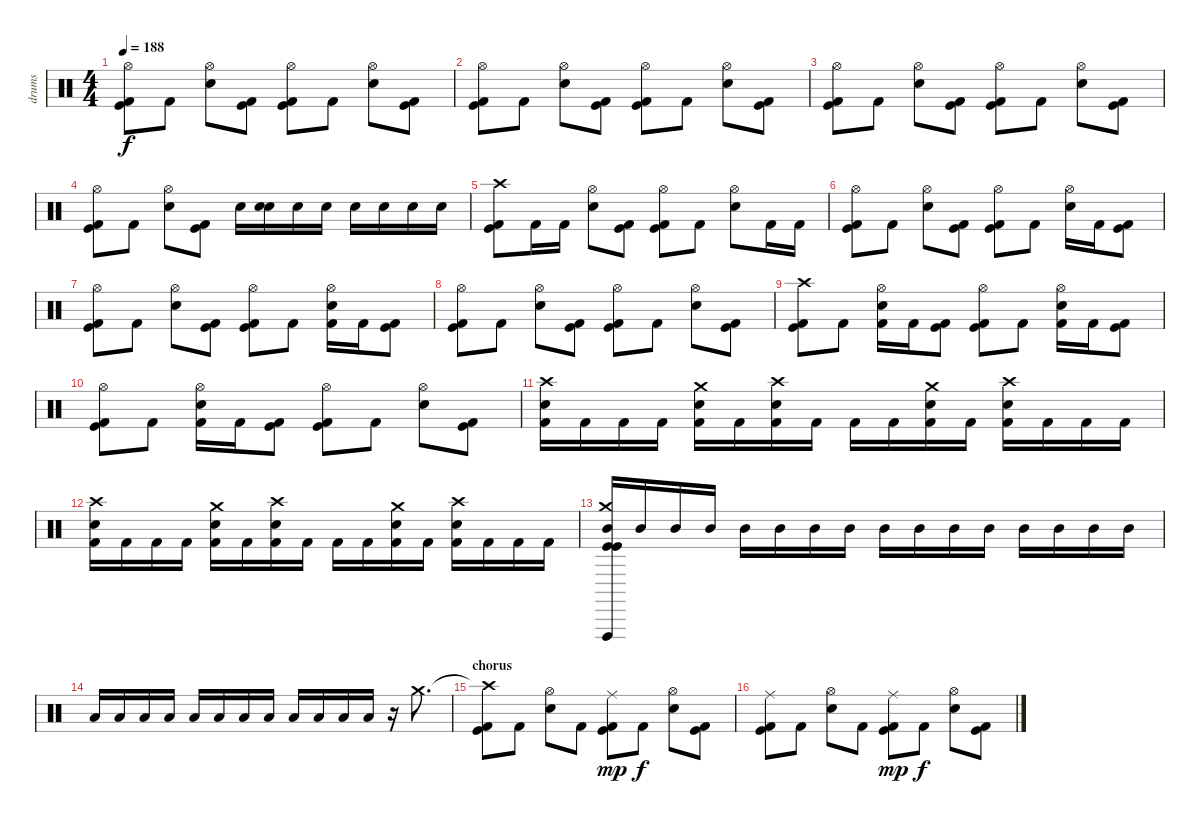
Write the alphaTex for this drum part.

\track ("drums" "drums") {instrument percussion}
\staff {score}
\articulation defaults
\ts (4 4)
\tempo 188
\clef neutral
\ks c
("Hi-Hat (open)" "Kick (hit)" "Kick (hit) 2").8{dy f} "Kick (hit) 2".8 ("Hi-Hat (open)" "Snare (hit) 2").8 ("Kick (hit)" "Kick (hit) 2").8 ("Hi-Hat (open)" "Kick (hit)" "Kick (hit) 2").8 "Kick (hit) 2".8 ("Hi-Hat (open)" "Snare (hit) 2").8 ("Kick (hit)" "Kick (hit) 2").8 |
("Hi-Hat (open)" "Kick (hit)" "Kick (hit) 2").8 "Kick (hit) 2".8 ("Hi-Hat (open)" "Snare (hit) 2").8 ("Kick (hit)" "Kick (hit) 2").8 ("Hi-Hat (open)" "Kick (hit)" "Kick (hit) 2").8 "Kick (hit) 2".8 ("Hi-Hat (open)" "Snare (hit) 2").8 ("Kick (hit)" "Kick (hit) 2").8 |
("Hi-Hat (open)" "Kick (hit)" "Kick (hit) 2").8 "Kick (hit) 2".8 ("Hi-Hat (open)" "Snare (hit) 2").8 ("Kick (hit)" "Kick (hit) 2").8 ("Hi-Hat (open)" "Kick (hit)" "Kick (hit) 2").8 "Kick (hit) 2".8 ("Hi-Hat (open)" "Snare (hit) 2").8 ("Kick (hit)" "Kick (hit) 2").8 |
("Hi-Hat (open)" "Kick (hit)" "Kick (hit) 2").8 "Kick (hit) 2".8 ("Hi-Hat (open)" "Snare (hit) 2").8 ("Kick (hit)" "Kick (hit) 2").8 "Electric Snare (hit)".16 ("Electric Snare (hit)" "Electric Snare (hit)").16 "Electric Snare (hit)".16 "Electric Snare (hit)".16 "Electric Snare (hit)".16 "Electric Snare (hit)".16 "Electric Snare (hit)".16 "Electric Snare (hit)".16 |
("Crash high (hit)" "Kick (hit)" "Kick (hit) 2").8 "Kick (hit) 2".16 "Kick (hit) 2".16 ("Hi-Hat (open)" "Snare (hit) 2").8 ("Kick (hit)" "Kick (hit) 2").8 ("Hi-Hat (open)" "Kick (hit)" "Kick (hit) 2").8 "Kick (hit) 2".8 ("Hi-Hat (open)" "Snare (hit) 2").8 "Kick (hit) 2".16 "Kick (hit) 2".16 |
("Hi-Hat (open)" "Kick (hit)" "Kick (hit) 2").8 "Kick (hit) 2".8 ("Hi-Hat (open)" "Snare (hit) 2").8 ("Kick (hit)" "Kick (hit) 2").8 ("Hi-Hat (open)" "Kick (hit)" "Kick (hit) 2").8 "Kick (hit) 2".8 ("Hi-Hat (open)" "Snare (hit) 2").16 "Kick (hit) 2".16 ("Kick (hit)" "Kick (hit) 2").8 |
("Hi-Hat (open)" "Kick (hit)" "Kick (hit) 2").8 "Kick (hit) 2".8 ("Hi-Hat (open)" "Snare (hit) 2").8 ("Kick (hit)" "Kick (hit) 2").8 ("Hi-Hat (open)" "Kick (hit)" "Kick (hit) 2").8 "Kick (hit) 2".8 ("Hi-Hat (open)" "Snare (hit) 2" "Kick (hit) 2").16 "Kick (hit) 2".16 ("Kick (hit)" "Kick (hit) 2").8 |
("Hi-Hat (open)" "Kick (hit)" "Kick (hit) 2").8 "Kick (hit) 2".8 ("Hi-Hat (open)" "Snare (hit) 2").8 ("Kick (hit)" "Kick (hit) 2").8 ("Hi-Hat (open)" "Kick (hit)" "Kick (hit) 2").8 "Kick (hit) 2".8 ("Hi-Hat (open)" "Snare (hit) 2").8 ("Kick (hit)" "Kick (hit) 2").8 |
("Crash high (hit)" "Kick (hit)" "Kick (hit) 2").8 "Kick (hit) 2".8 ("Hi-Hat (open)" "Snare (hit) 2" "Kick (hit) 2").16 "Kick (hit) 2".16 ("Kick (hit)" "Kick (hit) 2").8 ("Hi-Hat (open)" "Kick (hit)" "Kick (hit) 2").8 "Kick (hit) 2".8 ("Hi-Hat (open)" "Snare (hit) 2" "Kick (hit) 2").16 "Kick (hit) 2".16 ("Kick (hit)" "Kick (hit) 2").8 |
("Hi-Hat (open)" "Kick (hit)" "Kick (hit) 2").8 "Kick (hit) 2".8 ("Hi-Hat (open)" "Snare (hit) 2" "Kick (hit) 2").16 "Kick (hit) 2".16 ("Kick (hit)" "Kick (hit) 2").8 ("Hi-Hat (open)" "Kick (hit)" "Kick (hit) 2").8 "Kick (hit) 2".8 ("Hi-Hat (open)" "Snare (hit) 2").8 ("Kick (hit)" "Kick (hit) 2").8 |
("Crash high (hit)" "Snare (hit) 2" "Kick (hit) 2").16 "Kick (hit) 2".16 "Kick (hit) 2".16 "Kick (hit) 2".16 ("Crash medium (hit)" "Snare (hit) 2" "Kick (hit) 2").16 "Kick (hit) 2".16 ("Crash high (hit)" "Snare (hit) 2" "Kick (hit) 2").16 "Kick (hit) 2".16 "Kick (hit) 2".16 "Kick (hit) 2".16 ("Crash medium (hit)" "Snare (hit) 2" "Kick (hit) 2").16 "Kick (hit) 2".16 ("Crash high (hit)" "Snare (hit) 2" "Kick (hit) 2").16 "Kick (hit) 2".16 "Kick (hit) 2".16 "Kick (hit) 2".16 |
("Crash high (hit)" "Snare (hit) 2" "Kick (hit) 2").16 "Kick (hit) 2".16 "Kick (hit) 2".16 "Kick (hit) 2".16 ("Crash medium (hit)" "Snare (hit) 2" "Kick (hit) 2").16 "Kick (hit) 2".16 ("Crash high (hit)" "Snare (hit) 2" "Kick (hit) 2").16 "Kick (hit) 2".16 "Kick (hit) 2".16 "Kick (hit) 2".16 ("Crash medium (hit)" "Snare (hit) 2" "Kick (hit) 2").16 "Kick (hit) 2".16 ("Crash high (hit)" "Snare (hit) 2" "Kick (hit) 2").16 "Kick (hit) 2".16 "Kick (hit) 2".16 "Kick (hit) 2".16 |
("Vibraslap (hit)" "Crash medium (hit)" "Mid Tom (hit)" "Kick (hit)" "Kick (hit)").16 "Mid Tom (hit)".16 "Mid Tom (hit)".16 "Mid Tom (hit)".16 "Mid Tom (hit)".16 "Mid Tom (hit)".16 "Mid Tom (hit)".16 "Mid Tom (hit)".16 "Mid Tom (hit)".16 "Mid Tom (hit)".16 "Mid Tom (hit)".16 "Mid Tom (hit)".16 "Mid Tom (hit)".16 "Mid Tom (hit)".16 "Mid Tom (hit)".16 "Mid Tom (hit)".16 |
"Low Tom (hit)".16 "Low Tom (hit)".16 "Low Tom (hit)".16 "Low Tom (hit)".16 "Low Tom (hit)".16 "Low Tom (hit)".16 "Low Tom (hit)".16 "Low Tom (hit)".16 "Low Tom (hit)".16 "Low Tom (hit)".16 "Low Tom (hit)".16 "Low Tom (hit)".16 r.16 "Crash medium (hit)".8{d} |
\section ("" "chorus")
("Crash high (hit)"{t} "Kick (hit)" "Kick (hit) 2").8 "Kick (hit) 2".8 ("Hi-Hat (open)" "Snare (hit) 2").8 "Kick (hit) 2".8 ("Ride (middle)" "Kick (hit)" "Kick (hit) 2").8{dy mp} "Kick (hit) 2".8{dy f} ("Hi-Hat (open)" "Snare (hit) 2").8 ("Kick (hit)" "Kick (hit) 2").8 |
("Ride (middle)" "Kick (hit)" "Kick (hit) 2").8 "Kick (hit) 2".8 ("Hi-Hat (open)" "Snare (hit) 2").8 "Kick (hit) 2".8 ("Ride (middle)" "Kick (hit)" "Kick (hit) 2").8{dy mp} "Kick (hit) 2".8{dy f} ("Hi-Hat (open)" "Snare (hit) 2").8 ("Kick (hit)" "Kick (hit) 2").8
